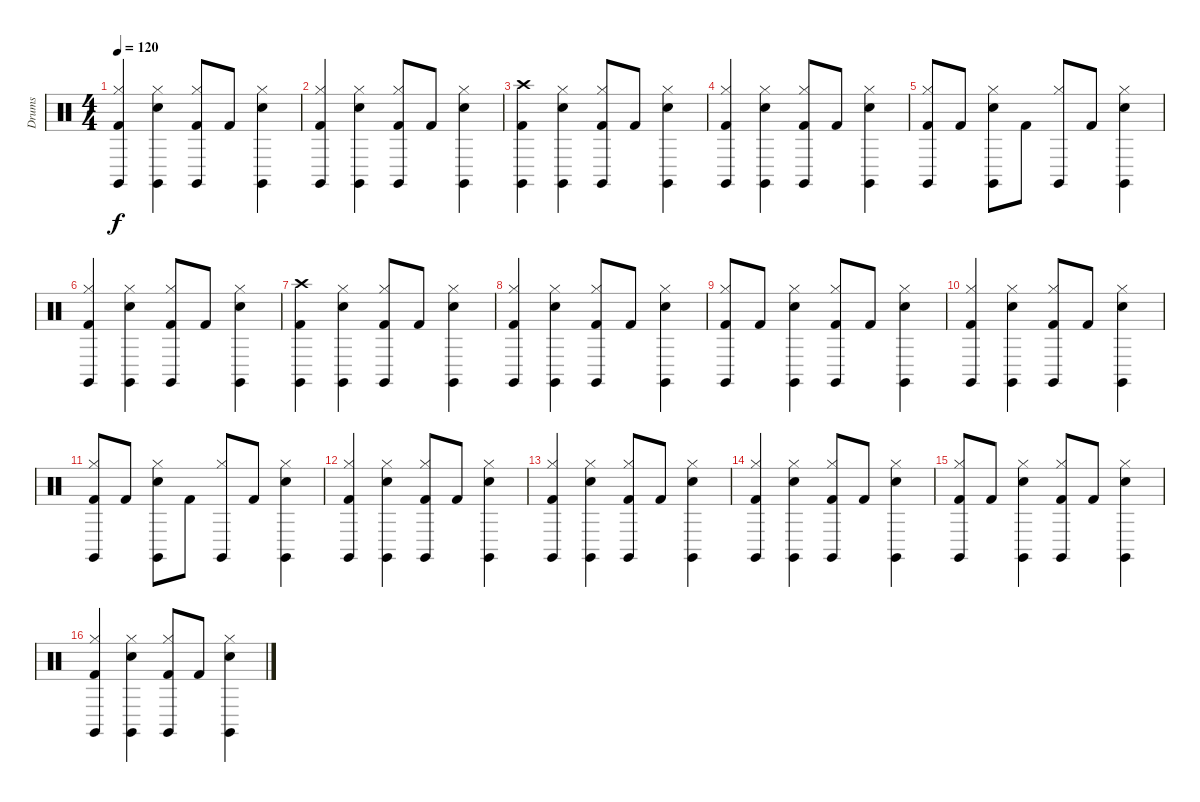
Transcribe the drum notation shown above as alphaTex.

\track ("Drums" "Drums") {instrument percussion}
\staff {score}
\articulation defaults
\ts (4 4)
\tempo 120
\clef neutral
\ks c
("Hi-Hat (closed)" "Kick (hit) 2" "Claves (hit)").4{dy f} ("Hi-Hat (closed)" "Snare (hit) 2" "Claves (hit)").4 ("Hi-Hat (closed)" "Kick (hit) 2" "Claves (hit)").8 "Kick (hit) 2".8 ("Hi-Hat (closed)" "Snare (hit) 2" "Claves (hit)").4 |
("Hi-Hat (closed)" "Kick (hit) 2" "Claves (hit)").4 ("Hi-Hat (closed)" "Snare (hit) 2" "Claves (hit)").4 ("Hi-Hat (closed)" "Kick (hit) 2" "Claves (hit)").8 "Kick (hit) 2".8 ("Hi-Hat (closed)" "Snare (hit) 2" "Claves (hit)").4 |
("Crash high (hit)" "Kick (hit) 2" "Claves (hit)").4 ("Hi-Hat (closed)" "Snare (hit) 2" "Claves (hit)").4 ("Hi-Hat (closed)" "Kick (hit) 2" "Claves (hit)").8 "Kick (hit) 2".8 ("Hi-Hat (closed)" "Snare (hit) 2" "Claves (hit)").4 |
("Hi-Hat (closed)" "Kick (hit) 2" "Claves (hit)").4 ("Hi-Hat (closed)" "Snare (hit) 2" "Claves (hit)").4 ("Hi-Hat (closed)" "Kick (hit) 2" "Claves (hit)").8 "Kick (hit) 2".8 ("Hi-Hat (closed)" "Snare (hit) 2" "Claves (hit)").4 |
("Hi-Hat (closed)" "Kick (hit) 2" "Claves (hit)").8 "Kick (hit) 2".8 ("Hi-Hat (closed)" "Snare (hit) 2" "Claves (hit)").8 "Kick (hit) 2".8 ("Hi-Hat (closed)" "Claves (hit)").8 "Kick (hit) 2".8 ("Hi-Hat (closed)" "Snare (hit) 2" "Claves (hit)").4 |
("Hi-Hat (closed)" "Kick (hit) 2" "Claves (hit)").4 ("Hi-Hat (closed)" "Snare (hit) 2" "Claves (hit)").4 ("Hi-Hat (closed)" "Kick (hit) 2" "Claves (hit)").8 "Kick (hit) 2".8 ("Hi-Hat (closed)" "Snare (hit) 2" "Claves (hit)").4 |
("Crash high (hit)" "Kick (hit) 2" "Claves (hit)").4 ("Hi-Hat (closed)" "Snare (hit) 2" "Claves (hit)").4 ("Hi-Hat (closed)" "Kick (hit) 2" "Claves (hit)").8 "Kick (hit) 2".8 ("Hi-Hat (closed)" "Snare (hit) 2" "Claves (hit)").4 |
("Hi-Hat (closed)" "Kick (hit) 2" "Claves (hit)").4 ("Hi-Hat (closed)" "Snare (hit) 2" "Claves (hit)").4 ("Hi-Hat (closed)" "Kick (hit) 2" "Claves (hit)").8 "Kick (hit) 2".8 ("Hi-Hat (closed)" "Snare (hit) 2" "Claves (hit)").4 |
("Hi-Hat (closed)" "Kick (hit) 2" "Claves (hit)").8 "Kick (hit) 2".8 ("Hi-Hat (closed)" "Snare (hit) 2" "Claves (hit)").4 ("Hi-Hat (closed)" "Kick (hit) 2" "Claves (hit)").8 "Kick (hit) 2".8 ("Hi-Hat (closed)" "Snare (hit) 2" "Claves (hit)").4 |
("Hi-Hat (closed)" "Kick (hit) 2" "Claves (hit)").4 ("Hi-Hat (closed)" "Snare (hit) 2" "Claves (hit)").4 ("Hi-Hat (closed)" "Kick (hit) 2" "Claves (hit)").8 "Kick (hit) 2".8 ("Hi-Hat (closed)" "Snare (hit) 2" "Claves (hit)").4 |
("Hi-Hat (closed)" "Kick (hit) 2" "Claves (hit)").8 "Kick (hit) 2".8 ("Hi-Hat (closed)" "Snare (hit) 2" "Claves (hit)").8 "Kick (hit) 2".8 ("Hi-Hat (closed)" "Claves (hit)").8 "Kick (hit) 2".8 ("Hi-Hat (closed)" "Snare (hit) 2" "Claves (hit)").4 |
("Hi-Hat (closed)" "Kick (hit) 2" "Claves (hit)").4 ("Hi-Hat (closed)" "Snare (hit) 2" "Claves (hit)").4 ("Hi-Hat (closed)" "Kick (hit) 2" "Claves (hit)").8 "Kick (hit) 2".8 ("Hi-Hat (closed)" "Snare (hit) 2" "Claves (hit)").4 |
("Hi-Hat (closed)" "Kick (hit) 2" "Claves (hit)").4 ("Hi-Hat (closed)" "Snare (hit) 2" "Claves (hit)").4 ("Hi-Hat (closed)" "Kick (hit) 2" "Claves (hit)").8 "Kick (hit) 2".8 ("Hi-Hat (closed)" "Snare (hit) 2" "Claves (hit)").4 |
("Hi-Hat (closed)" "Kick (hit) 2" "Claves (hit)").4 ("Hi-Hat (closed)" "Snare (hit) 2" "Claves (hit)").4 ("Hi-Hat (closed)" "Kick (hit) 2" "Claves (hit)").8 "Kick (hit) 2".8 ("Hi-Hat (closed)" "Snare (hit) 2" "Claves (hit)").4 |
("Hi-Hat (closed)" "Kick (hit) 2" "Claves (hit)").8 "Kick (hit) 2".8 ("Hi-Hat (closed)" "Snare (hit) 2" "Claves (hit)").4 ("Hi-Hat (closed)" "Kick (hit) 2" "Claves (hit)").8 "Kick (hit) 2".8 ("Hi-Hat (closed)" "Snare (hit) 2" "Claves (hit)").4 |
("Hi-Hat (closed)" "Kick (hit) 2" "Claves (hit)").4 ("Hi-Hat (closed)" "Snare (hit) 2" "Claves (hit)").4 ("Hi-Hat (closed)" "Kick (hit) 2" "Claves (hit)").8 "Kick (hit) 2".8 ("Hi-Hat (closed)" "Snare (hit) 2" "Claves (hit)").4
